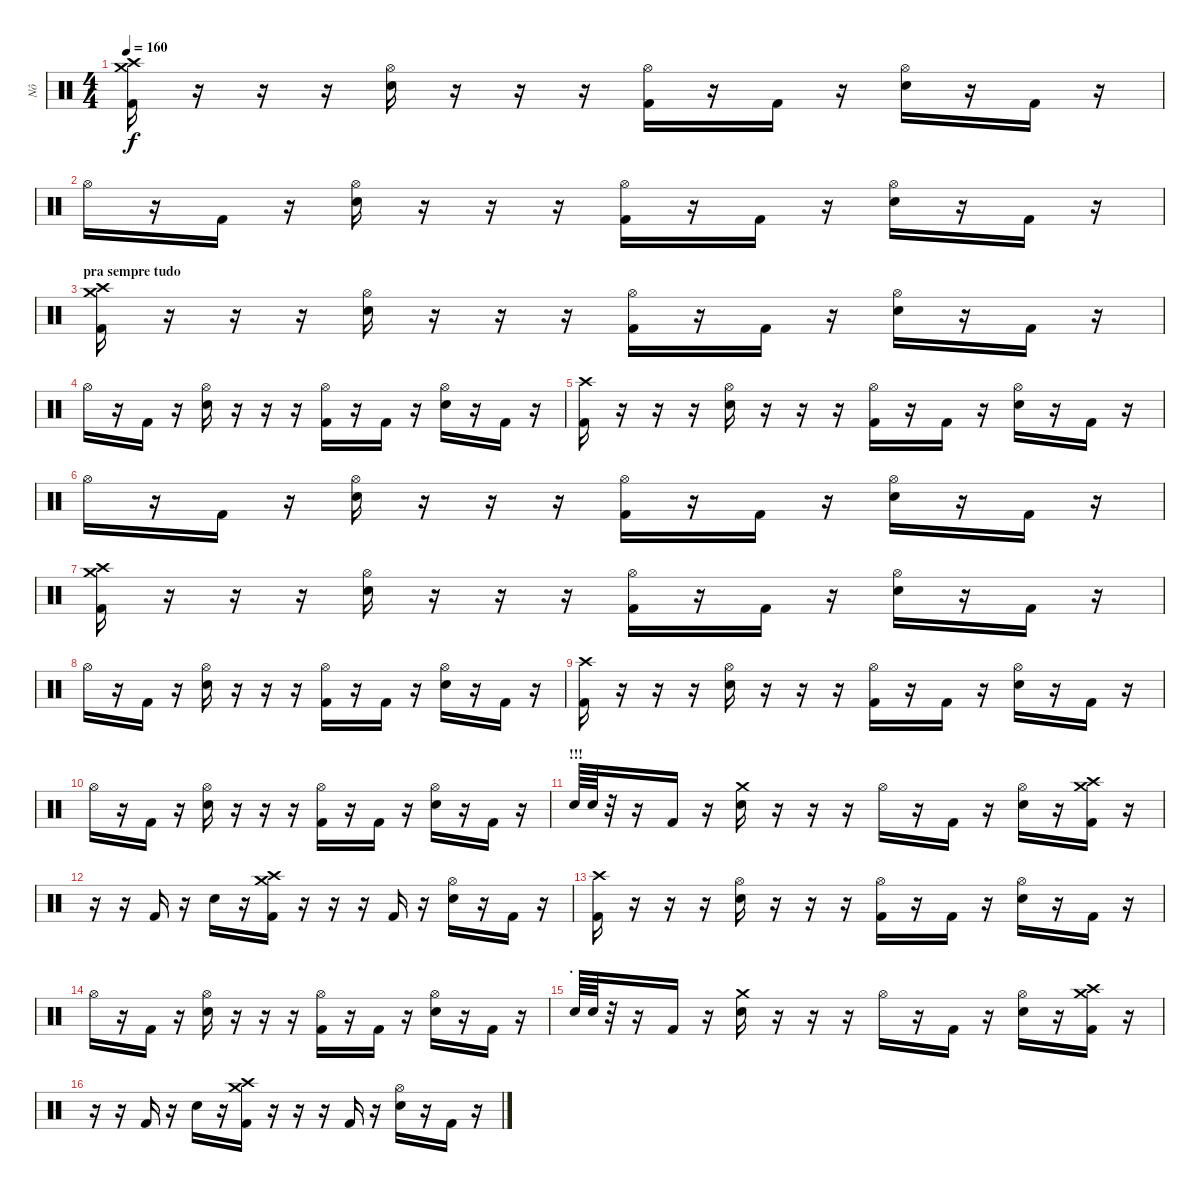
\track ("Nô" "Nô") {instrument percussion}
\staff {score}
\articulation defaults
\ts (4 4)
\tempo 160
\clef neutral
\ks c
("Crash high (hit)" "Crash medium (hit)" "Kick (hit) 2").16{dy f} r.16 r.16 r.16 ("Hi-Hat (open)" "Electric Snare (hit)").16 r.16 r.16 r.16 ("Hi-Hat (open)" "Kick (hit) 2").16 r.16 "Kick (hit) 2".16 r.16 ("Hi-Hat (open)" "Electric Snare (hit)").16 r.16 "Kick (hit) 2".16 r.16 |
"Hi-Hat (open)".16 r.16 "Kick (hit) 2".16 r.16 ("Hi-Hat (open)" "Electric Snare (hit)").16 r.16 r.16 r.16 ("Hi-Hat (open)" "Kick (hit) 2").16 r.16 "Kick (hit) 2".16 r.16 ("Hi-Hat (open)" "Electric Snare (hit)").16 r.16 "Kick (hit) 2".16 r.16 |
\section ("" "pra sempre tudo")
("Crash high (hit)" "Crash medium (hit)" "Kick (hit) 2").16 r.16 r.16 r.16 ("Hi-Hat (open)" "Electric Snare (hit)").16 r.16 r.16 r.16 ("Hi-Hat (open)" "Kick (hit) 2").16 r.16 "Kick (hit) 2".16 r.16 ("Hi-Hat (open)" "Electric Snare (hit)").16 r.16 "Kick (hit) 2".16 r.16 |
"Hi-Hat (open)".16 r.16 "Kick (hit) 2".16 r.16 ("Hi-Hat (open)" "Electric Snare (hit)").16 r.16 r.16 r.16 ("Hi-Hat (open)" "Kick (hit) 2").16 r.16 "Kick (hit) 2".16 r.16 ("Hi-Hat (open)" "Electric Snare (hit)").16 r.16 "Kick (hit) 2".16 r.16 |
("Crash high (hit)" "Kick (hit) 2").16 r.16 r.16 r.16 ("Hi-Hat (open)" "Electric Snare (hit)").16 r.16 r.16 r.16 ("Hi-Hat (open)" "Kick (hit) 2").16 r.16 "Kick (hit) 2".16 r.16 ("Hi-Hat (open)" "Electric Snare (hit)").16 r.16 "Kick (hit) 2".16 r.16 |
"Hi-Hat (open)".16 r.16 "Kick (hit) 2".16 r.16 ("Hi-Hat (open)" "Electric Snare (hit)").16 r.16 r.16 r.16 ("Hi-Hat (open)" "Kick (hit) 2").16 r.16 "Kick (hit) 2".16 r.16 ("Hi-Hat (open)" "Electric Snare (hit)").16 r.16 "Kick (hit) 2".16 r.16 |
("Crash high (hit)" "Crash medium (hit)" "Kick (hit) 2").16 r.16 r.16 r.16 ("Hi-Hat (open)" "Electric Snare (hit)").16 r.16 r.16 r.16 ("Hi-Hat (open)" "Kick (hit) 2").16 r.16 "Kick (hit) 2".16 r.16 ("Hi-Hat (open)" "Electric Snare (hit)").16 r.16 "Kick (hit) 2".16 r.16 |
"Hi-Hat (open)".16 r.16 "Kick (hit) 2".16 r.16 ("Hi-Hat (open)" "Electric Snare (hit)").16 r.16 r.16 r.16 ("Hi-Hat (open)" "Kick (hit) 2").16 r.16 "Kick (hit) 2".16 r.16 ("Hi-Hat (open)" "Electric Snare (hit)").16 r.16 "Kick (hit) 2".16 r.16 |
("Crash high (hit)" "Kick (hit) 2").16 r.16 r.16 r.16 ("Hi-Hat (open)" "Electric Snare (hit)").16 r.16 r.16 r.16 ("Hi-Hat (open)" "Kick (hit) 2").16 r.16 "Kick (hit) 2".16 r.16 ("Hi-Hat (open)" "Electric Snare (hit)").16 r.16 "Kick (hit) 2".16 r.16 |
"Hi-Hat (open)".16 r.16 "Kick (hit) 2".16 r.16 ("Hi-Hat (open)" "Electric Snare (hit)").16 r.16 r.16 r.16 ("Hi-Hat (open)" "Kick (hit) 2").16 r.16 "Kick (hit) 2".16 r.16 ("Hi-Hat (open)" "Electric Snare (hit)").16 r.16 "Kick (hit) 2".16 r.16 |
\section ("" "!!!")
"Electric Snare (hit)".64 "Electric Snare (hit)".64 r.32 r.16 "Kick (hit) 2".16 r.16 ("Crash medium (hit)" "Electric Snare (hit)").16 r.16 r.16 r.16 "Hi-Hat (open)".16 r.16 "Kick (hit) 2".16 r.16 ("Hi-Hat (open)" "Electric Snare (hit)").16 r.16 ("Crash high (hit)" "Crash medium (hit)" "Kick (hit) 2").16 r.16 |
r.16 r.16 "Kick (hit) 2".16 r.16 "Electric Snare (hit)".16 r.16 ("Crash high (hit)" "Crash medium (hit)" "Kick (hit) 2").16 r.16 r.16 r.16 "Kick (hit) 2".16 r.16 ("Hi-Hat (open)" "Electric Snare (hit)").16 r.16 "Kick (hit) 2".16 r.16 |
("Crash high (hit)" "Kick (hit) 2").16 r.16 r.16 r.16 ("Hi-Hat (open)" "Electric Snare (hit)").16 r.16 r.16 r.16 ("Hi-Hat (open)" "Kick (hit) 2").16 r.16 "Kick (hit) 2".16 r.16 ("Hi-Hat (open)" "Electric Snare (hit)").16 r.16 "Kick (hit) 2".16 r.16 |
"Hi-Hat (open)".16 r.16 "Kick (hit) 2".16 r.16 ("Hi-Hat (open)" "Electric Snare (hit)").16 r.16 r.16 r.16 ("Hi-Hat (open)" "Kick (hit) 2").16 r.16 "Kick (hit) 2".16 r.16 ("Hi-Hat (open)" "Electric Snare (hit)").16 r.16 "Kick (hit) 2".16 r.16 |
\section ("" ".")
"Electric Snare (hit)".64 "Electric Snare (hit)".64 r.32 r.16 "Kick (hit) 2".16 r.16 ("Crash medium (hit)" "Electric Snare (hit)").16 r.16 r.16 r.16 "Hi-Hat (open)".16 r.16 "Kick (hit) 2".16 r.16 ("Hi-Hat (open)" "Electric Snare (hit)").16 r.16 ("Crash high (hit)" "Crash medium (hit)" "Kick (hit) 2").16 r.16 |
r.16 r.16 "Kick (hit) 2".16 r.16 "Electric Snare (hit)".16 r.16 ("Crash high (hit)" "Crash medium (hit)" "Kick (hit) 2").16 r.16 r.16 r.16 "Kick (hit) 2".16 r.16 ("Hi-Hat (open)" "Electric Snare (hit)").16 r.16 "Kick (hit) 2".16 r.16
